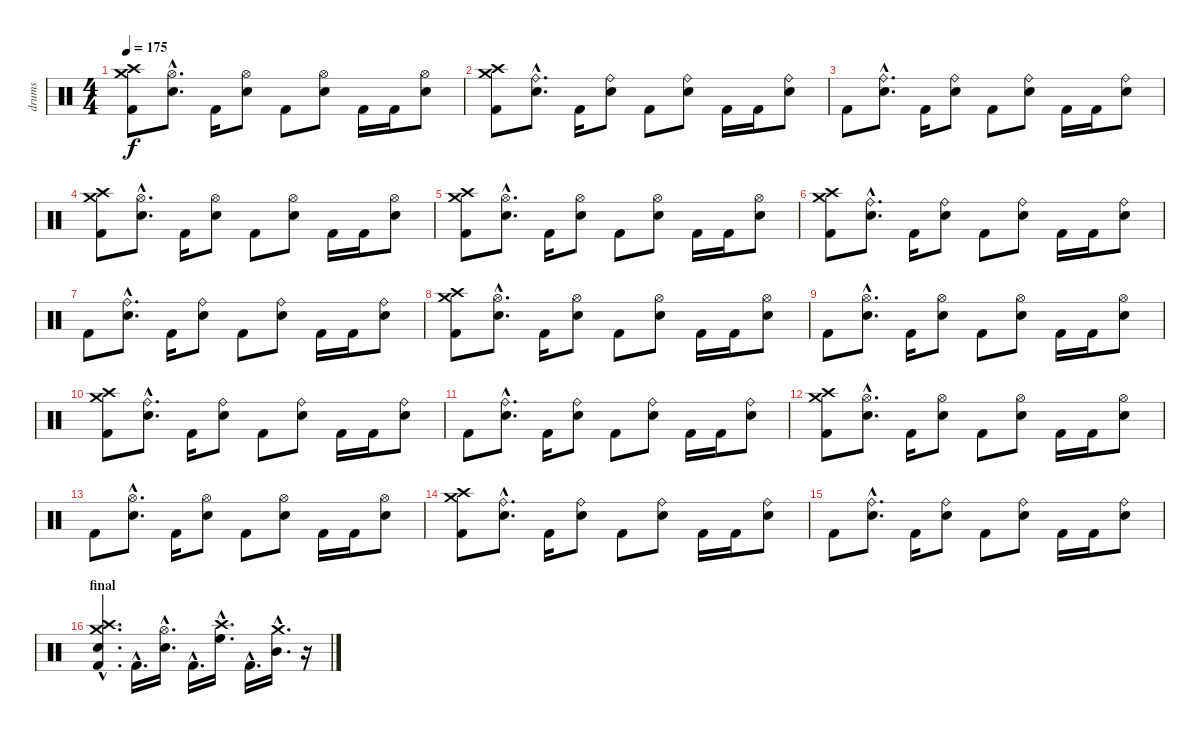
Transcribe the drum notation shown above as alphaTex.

\track ("drums" "drums") {instrument percussion}
\staff {score}
\articulation defaults
\ts (4 4)
\tempo 175
\clef neutral
\ks c
("Kick (hit) 2" "Crash high (hit)" "Crash medium (hit)").8{dy f} ("Hi-Hat (open)"{hac} "Electric Snare (hit)"{hac}).8{d} "Kick (hit) 2".16 ("Hi-Hat (open)" "Electric Snare (hit)").8 "Kick (hit) 2".8 ("Hi-Hat (open)" "Electric Snare (hit)").8 "Kick (hit) 2".16 "Kick (hit) 2".16 ("Hi-Hat (open)" "Electric Snare (hit)").8 |
("Kick (hit) 2" "Crash high (hit)" "Crash medium (hit)").8 ("Ride (bell)"{hac} "Electric Snare (hit)"{hac}).8{d} "Kick (hit) 2".16 ("Ride (bell)" "Electric Snare (hit)").8 "Kick (hit) 2".8 ("Ride (bell)" "Electric Snare (hit)").8 "Kick (hit) 2".16 "Kick (hit) 2".16 ("Ride (bell)" "Electric Snare (hit)").8 |
"Kick (hit) 2".8 ("Ride (bell)"{hac} "Electric Snare (hit)"{hac}).8{d} "Kick (hit) 2".16 ("Ride (bell)" "Electric Snare (hit)").8 "Kick (hit) 2".8 ("Ride (bell)" "Electric Snare (hit)").8 "Kick (hit) 2".16 "Kick (hit) 2".16 ("Ride (bell)" "Electric Snare (hit)").8 |
("Kick (hit) 2" "Crash high (hit)" "Crash medium (hit)").8 ("Hi-Hat (open)"{hac} "Electric Snare (hit)"{hac}).8{d} "Kick (hit) 2".16 ("Hi-Hat (open)" "Electric Snare (hit)").8 "Kick (hit) 2".8 ("Hi-Hat (open)" "Electric Snare (hit)").8 "Kick (hit) 2".16 "Kick (hit) 2".16 ("Hi-Hat (open)" "Electric Snare (hit)").8 |
("Kick (hit) 2" "Crash high (hit)" "Crash medium (hit)").8 ("Hi-Hat (open)"{hac} "Electric Snare (hit)"{hac}).8{d} "Kick (hit) 2".16 ("Hi-Hat (open)" "Electric Snare (hit)").8 "Kick (hit) 2".8 ("Hi-Hat (open)" "Electric Snare (hit)").8 "Kick (hit) 2".16 "Kick (hit) 2".16 ("Hi-Hat (open)" "Electric Snare (hit)").8 |
("Kick (hit) 2" "Crash high (hit)" "Crash medium (hit)").8 ("Ride (bell)"{hac} "Electric Snare (hit)"{hac}).8{d} "Kick (hit) 2".16 ("Ride (bell)" "Electric Snare (hit)").8 "Kick (hit) 2".8 ("Ride (bell)" "Electric Snare (hit)").8 "Kick (hit) 2".16 "Kick (hit) 2".16 ("Ride (bell)" "Electric Snare (hit)").8 |
"Kick (hit) 2".8 ("Ride (bell)"{hac} "Electric Snare (hit)"{hac}).8{d} "Kick (hit) 2".16 ("Ride (bell)" "Electric Snare (hit)").8 "Kick (hit) 2".8 ("Ride (bell)" "Electric Snare (hit)").8 "Kick (hit) 2".16 "Kick (hit) 2".16 ("Ride (bell)" "Electric Snare (hit)").8 |
("Kick (hit) 2" "Crash high (hit)" "Crash medium (hit)").8 ("Hi-Hat (open)"{hac} "Electric Snare (hit)"{hac}).8{d} "Kick (hit) 2".16 ("Hi-Hat (open)" "Electric Snare (hit)").8 "Kick (hit) 2".8 ("Hi-Hat (open)" "Electric Snare (hit)").8 "Kick (hit) 2".16 "Kick (hit) 2".16 ("Hi-Hat (open)" "Electric Snare (hit)").8 |
"Kick (hit) 2".8 ("Hi-Hat (open)"{hac} "Electric Snare (hit)"{hac}).8{d} "Kick (hit) 2".16 ("Hi-Hat (open)" "Electric Snare (hit)").8 "Kick (hit) 2".8 ("Hi-Hat (open)" "Electric Snare (hit)").8 "Kick (hit) 2".16 "Kick (hit) 2".16 ("Hi-Hat (open)" "Electric Snare (hit)").8 |
("Kick (hit) 2" "Crash high (hit)" "Crash medium (hit)").8 ("Ride (bell)"{hac} "Electric Snare (hit)"{hac}).8{d} "Kick (hit) 2".16 ("Ride (bell)" "Electric Snare (hit)").8 "Kick (hit) 2".8 ("Ride (bell)" "Electric Snare (hit)").8 "Kick (hit) 2".16 "Kick (hit) 2".16 ("Ride (bell)" "Electric Snare (hit)").8 |
"Kick (hit) 2".8 ("Ride (bell)"{hac} "Electric Snare (hit)"{hac}).8{d} "Kick (hit) 2".16 ("Ride (bell)" "Electric Snare (hit)").8 "Kick (hit) 2".8 ("Ride (bell)" "Electric Snare (hit)").8 "Kick (hit) 2".16 "Kick (hit) 2".16 ("Ride (bell)" "Electric Snare (hit)").8 |
("Kick (hit) 2" "Crash high (hit)" "Crash medium (hit)").8 ("Hi-Hat (open)"{hac} "Electric Snare (hit)"{hac}).8{d} "Kick (hit) 2".16 ("Hi-Hat (open)" "Electric Snare (hit)").8 "Kick (hit) 2".8 ("Hi-Hat (open)" "Electric Snare (hit)").8 "Kick (hit) 2".16 "Kick (hit) 2".16 ("Hi-Hat (open)" "Electric Snare (hit)").8 |
"Kick (hit) 2".8 ("Hi-Hat (open)"{hac} "Electric Snare (hit)"{hac}).8{d} "Kick (hit) 2".16 ("Hi-Hat (open)" "Electric Snare (hit)").8 "Kick (hit) 2".8 ("Hi-Hat (open)" "Electric Snare (hit)").8 "Kick (hit) 2".16 "Kick (hit) 2".16 ("Hi-Hat (open)" "Electric Snare (hit)").8 |
("Kick (hit) 2" "Crash high (hit)" "Crash medium (hit)").8 ("Ride (bell)"{hac} "Electric Snare (hit)"{hac}).8{d} "Kick (hit) 2".16 ("Ride (bell)" "Electric Snare (hit)").8 "Kick (hit) 2".8 ("Ride (bell)" "Electric Snare (hit)").8 "Kick (hit) 2".16 "Kick (hit) 2".16 ("Ride (bell)" "Electric Snare (hit)").8 |
"Kick (hit) 2".8 ("Ride (bell)"{hac} "Electric Snare (hit)"{hac}).8{d} "Kick (hit) 2".16 ("Ride (bell)" "Electric Snare (hit)").8 "Kick (hit) 2".8 ("Ride (bell)" "Electric Snare (hit)").8 "Kick (hit) 2".16 "Kick (hit) 2".16 ("Ride (bell)" "Electric Snare (hit)").8 |
\section ("" "final")
("Kick (hit) 2"{hac} "Electric Snare (hit)"{hac} "Crash high (hit)"{hac} "Crash medium (hit)"{hac}).4{d} "Kick (hit) 2"{hac}.16{d} ("Electric Snare (hit)"{hac} "Hi-Hat (open)"{hac}).16{d} "Kick (hit) 2"{hac}.16{d} ("High Floor Tom (hit)"{hac} "Crash high (hit)"{hac}).16{d} "Kick (hit) 2"{hac}.16{d} ("Mid Tom (hit)"{hac} "Crash medium (hit)"{hac}).16{d} r.16
